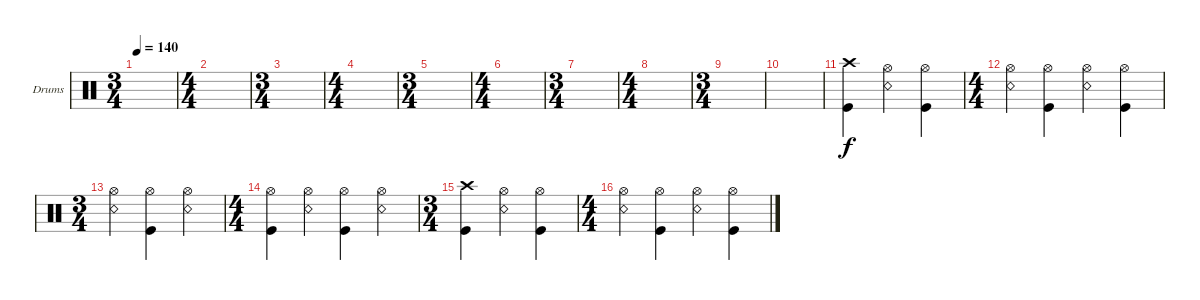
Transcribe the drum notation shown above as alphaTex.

\defaultSystemsLayout 4
\bracketExtendMode groupsimilarinstruments
\firstSystemTrackNameOrientation horizontal
\otherSystemsTrackNameOrientation horizontal
\track ("Drumkit" "Drums") {instrument percussion}
\staff {score}
\articulation defaults
\ts (3 4)
\tempo 140
\clef neutral
\ks c
|
\ts (4 4)
|
\ts (3 4)
|
\ts (4 4)
|
\ts (3 4)
|
\ts (4 4)
|
\ts (3 4)
|
\ts (4 4)
|
\ts (3 4)
|
|
("Crash high (hit)" "Kick (hit)").4 ("Hi-Hat (open)" "Snare (rim shot)").4 ("Hi-Hat (open)" "Kick (hit)").4 |
\ts (4 4)
("Hi-Hat (open)" "Snare (rim shot)").4 ("Hi-Hat (open)" "Kick (hit)").4 ("Hi-Hat (open)" "Snare (rim shot)").4 ("Hi-Hat (open)" "Kick (hit)").4 |
\ts (3 4)
("Hi-Hat (open)" "Snare (rim shot)").4 ("Hi-Hat (open)" "Kick (hit)").4 ("Hi-Hat (open)" "Snare (rim shot)").4 |
\ts (4 4)
("Hi-Hat (open)" "Kick (hit)").4 ("Hi-Hat (open)" "Snare (rim shot)").4 ("Hi-Hat (open)" "Kick (hit)").4 ("Hi-Hat (open)" "Snare (rim shot)").4 |
\ts (3 4)
("Crash high (hit)" "Kick (hit)").4 ("Hi-Hat (open)" "Snare (rim shot)").4 ("Hi-Hat (open)" "Kick (hit)").4 |
\ts (4 4)
("Hi-Hat (open)" "Snare (rim shot)").4 ("Hi-Hat (open)" "Kick (hit)").4 ("Hi-Hat (open)" "Snare (rim shot)").4 ("Hi-Hat (open)" "Kick (hit)").4
